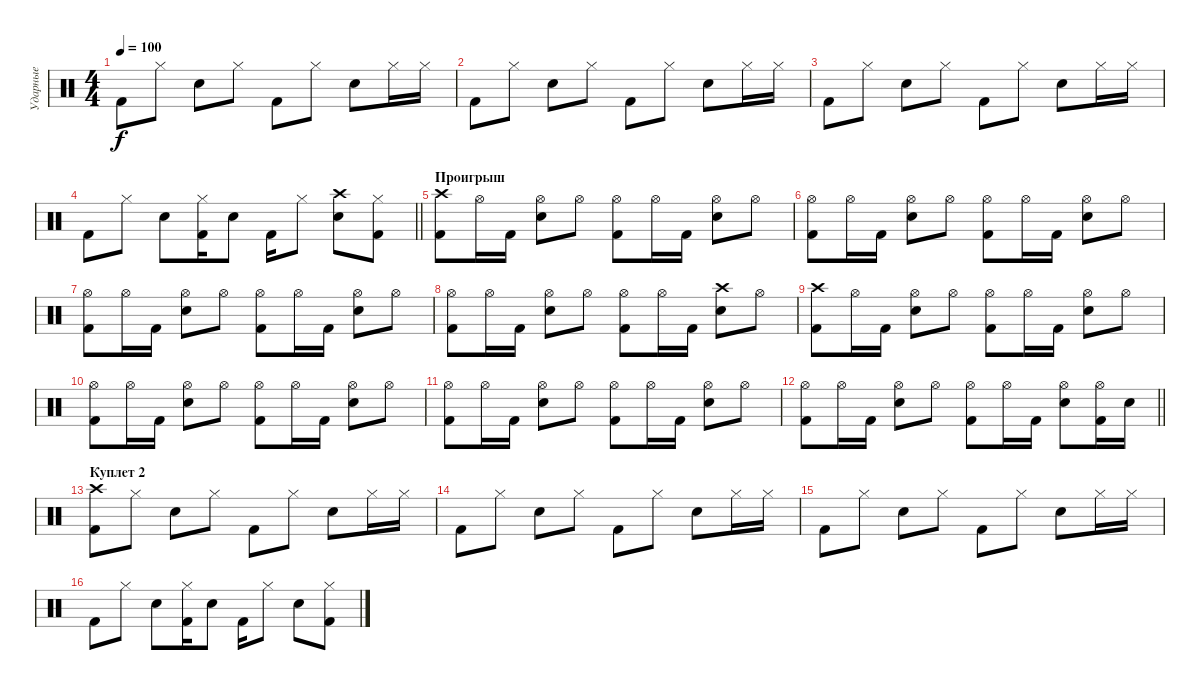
\track ("Ударные" "Ударные") {instrument percussion}
\staff {score}
\articulation defaults
\ts (4 4)
\tempo 100
\clef neutral
\ks c "Kick (hit) 2".8{dy f} "Hi-Hat (closed)".8 "Electric Snare (hit)".8 "Hi-Hat (closed)".8 "Kick (hit) 2".8 "Hi-Hat (closed)".8 "Electric Snare (hit)".8 "Hi-Hat (closed)".16 "Hi-Hat (closed)".16
|
"Kick (hit) 2".8 "Hi-Hat (closed)".8 "Electric Snare (hit)".8 "Hi-Hat (closed)".8 "Kick (hit) 2".8 "Hi-Hat (closed)".8 "Electric Snare (hit)".8 "Hi-Hat (closed)".16 "Hi-Hat (closed)".16 |
"Kick (hit) 2".8 "Hi-Hat (closed)".8 "Electric Snare (hit)".8 "Hi-Hat (closed)".8 "Kick (hit) 2".8 "Hi-Hat (closed)".8 "Electric Snare (hit)".8 "Hi-Hat (closed)".16 "Hi-Hat (closed)".16 |
\barLineRight lightlight "Kick (hit) 2".8 "Hi-Hat (closed)".8 "Electric Snare (hit)".8
("Hi-Hat (closed)" "Kick (hit) 2").16 "Electric Snare (hit)".8 "Kick (hit) 2".16 "Hi-Hat (closed)".8 ("Crash high (hit)" "Electric Snare (hit)").8 ("Hi-Hat (closed)" "Kick (hit) 2").8 |
\section ("" "Проигрыш")
("Crash high (hit)" "Kick (hit) 2").8 "Hi-Hat (open)".16 "Kick (hit) 2".16 ("Hi-Hat (open)" "Electric Snare (hit)").8 "Hi-Hat (open)".8 ("Hi-Hat (open)" "Kick (hit) 2").8 "Hi-Hat (open)".16 "Kick (hit) 2".16 ("Hi-Hat (open)" "Electric Snare (hit)").8 "Hi-Hat (open)".8 |
("Hi-Hat (open)" "Kick (hit) 2").8 "Hi-Hat (open)".16 "Kick (hit) 2".16 ("Hi-Hat (open)" "Electric Snare (hit)").8 "Hi-Hat (open)".8 ("Hi-Hat (open)" "Kick (hit) 2").8 "Hi-Hat (open)".16 "Kick (hit) 2".16 ("Hi-Hat (open)" "Electric Snare (hit)").8 "Hi-Hat (open)".8 |
("Hi-Hat (open)" "Kick (hit) 2").8 "Hi-Hat (open)".16 "Kick (hit) 2".16 ("Hi-Hat (open)" "Electric Snare (hit)").8 "Hi-Hat (open)".8 ("Hi-Hat (open)" "Kick (hit) 2").8 "Hi-Hat (open)".16 "Kick (hit) 2".16 ("Hi-Hat (open)" "Electric Snare (hit)").8 "Hi-Hat (open)".8 |
("Hi-Hat (open)" "Kick (hit) 2").8 "Hi-Hat (open)".16 "Kick (hit) 2".16 ("Hi-Hat (open)" "Electric Snare (hit)").8 "Hi-Hat (open)".8 ("Hi-Hat (open)" "Kick (hit) 2").8 "Hi-Hat (open)".16 "Kick (hit) 2".16 ("Crash high (hit)" "Electric Snare (hit)").8 "Hi-Hat (open)".8 |
("Crash high (hit)" "Kick (hit) 2").8 "Hi-Hat (open)".16 "Kick (hit) 2".16 ("Hi-Hat (open)" "Electric Snare (hit)").8 "Hi-Hat (open)".8 ("Hi-Hat (open)" "Kick (hit) 2").8 "Hi-Hat (open)".16 "Kick (hit) 2".16 ("Hi-Hat (open)" "Electric Snare (hit)").8 "Hi-Hat (open)".8 |
("Hi-Hat (open)" "Kick (hit) 2").8 "Hi-Hat (open)".16 "Kick (hit) 2".16 ("Hi-Hat (open)" "Electric Snare (hit)").8 "Hi-Hat (open)".8 ("Hi-Hat (open)" "Kick (hit) 2").8 "Hi-Hat (open)".16 "Kick (hit) 2".16 ("Hi-Hat (open)" "Electric Snare (hit)").8 "Hi-Hat (open)".8 |
("Hi-Hat (open)" "Kick (hit) 2").8 "Hi-Hat (open)".16 "Kick (hit) 2".16 ("Hi-Hat (open)" "Electric Snare (hit)").8 "Hi-Hat (open)".8 ("Hi-Hat (open)" "Kick (hit) 2").8 "Hi-Hat (open)".16 "Kick (hit) 2".16 ("Hi-Hat (open)" "Electric Snare (hit)").8 "Hi-Hat (open)".8 |
\barLineRight lightlight
("Hi-Hat (open)" "Kick (hit) 2").8 "Hi-Hat (open)".16 "Kick (hit) 2".16 ("Hi-Hat (open)" "Electric Snare (hit)").8 "Hi-Hat (open)".8 ("Hi-Hat (open)" "Kick (hit) 2").8 "Hi-Hat (open)".16 "Kick (hit) 2".16 ("Hi-Hat (open)" "Electric Snare (hit)").8 ("Hi-Hat (open)" "Kick (hit) 2").16 "Electric Snare (hit)".16 |
\section ("" "Куплет 2")
("Crash high (hit)" "Kick (hit) 2").8 "Hi-Hat (closed)".8 "Electric Snare (hit)".8 "Hi-Hat (closed)".8 "Kick (hit) 2".8 "Hi-Hat (closed)".8 "Electric Snare (hit)".8 "Hi-Hat (closed)".16 "Hi-Hat (closed)".16 |
"Kick (hit) 2".8 "Hi-Hat (closed)".8 "Electric Snare (hit)".8 "Hi-Hat (closed)".8 "Kick (hit) 2".8 "Hi-Hat (closed)".8 "Electric Snare (hit)".8 "Hi-Hat (closed)".16 "Hi-Hat (closed)".16 |
"Kick (hit) 2".8 "Hi-Hat (closed)".8 "Electric Snare (hit)".8 "Hi-Hat (closed)".8 "Kick (hit) 2".8 "Hi-Hat (closed)".8 "Electric Snare (hit)".8 "Hi-Hat (closed)".16 "Hi-Hat (closed)".16 |
"Kick (hit) 2".8 "Hi-Hat (closed)".8 "Electric Snare (hit)".8 ("Hi-Hat (closed)" "Kick (hit) 2").16 "Electric Snare (hit)".8 "Kick (hit) 2".16 "Hi-Hat (closed)".8 "Electric Snare (hit)".8 ("Hi-Hat (closed)" "Kick (hit) 2").8
